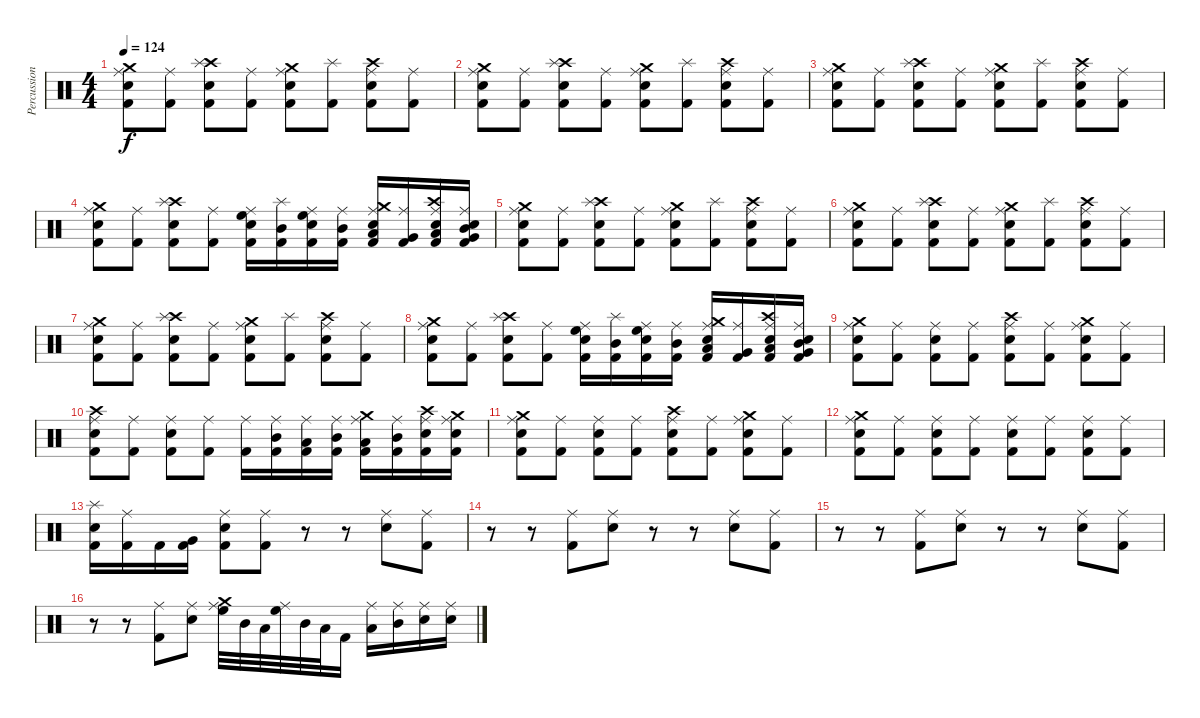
\track ("Percussions" "Percussion") {instrument percussion}
\staff {score}
\articulation defaults
\ts (4 4)
\tempo 124
\clef neutral
\ks c
("Kick (hit) 2" "Electric Snare (hit)" "Crash medium (hit)" "Ride (middle)").8{dy f} ("Kick (hit) 2" "Ride (middle)").8 ("Kick (hit) 2" "Electric Snare (hit)" "Crash high (hit)" "Splash (hit)").8 ("Kick (hit) 2" "Ride (middle)").8 ("Kick (hit) 2" "Electric Snare (hit)" "Crash medium (hit)" "Ride (middle)").8 ("Kick (hit) 2" "Splash (hit)").8 ("Kick (hit) 2" "Electric Snare (hit)" "Crash high (hit)" "Ride (middle)").8 ("Kick (hit) 2" "Ride (middle)").8 |
("Kick (hit) 2" "Electric Snare (hit)" "Crash medium (hit)" "Ride (middle)").8 ("Kick (hit) 2" "Ride (middle)").8 ("Kick (hit) 2" "Electric Snare (hit)" "Crash high (hit)" "Splash (hit)").8 ("Kick (hit) 2" "Ride (middle)").8 ("Kick (hit) 2" "Electric Snare (hit)" "Crash medium (hit)" "Ride (middle)").8 ("Kick (hit) 2" "Splash (hit)").8 ("Kick (hit) 2" "Electric Snare (hit)" "Crash high (hit)" "Ride (middle)").8 ("Kick (hit) 2" "Ride (middle)").8 |
("Kick (hit) 2" "Electric Snare (hit)" "Crash medium (hit)" "Ride (middle)").8 ("Kick (hit) 2" "Ride (middle)").8 ("Kick (hit) 2" "Electric Snare (hit)" "Crash high (hit)" "Splash (hit)").8 ("Kick (hit) 2" "Ride (middle)").8 ("Kick (hit) 2" "Electric Snare (hit)" "Crash medium (hit)" "Ride (middle)").8 ("Kick (hit) 2" "Splash (hit)").8 ("Kick (hit) 2" "Electric Snare (hit)" "Crash high (hit)" "Ride (middle)").8 ("Kick (hit) 2" "Ride (middle)").8 |
("Kick (hit) 2" "Electric Snare (hit)" "Crash medium (hit)" "Ride (middle)").8 ("Kick (hit) 2" "Ride (middle)").8 ("Kick (hit) 2" "Electric Snare (hit)" "Crash high (hit)" "Splash (hit)").8 ("Kick (hit) 2" "Ride (middle)").8 ("Kick (hit) 2" "Electric Snare (hit)" "High Floor Tom (hit)" "Ride (middle)").16 ("Kick (hit) 2" "Mid Tom (hit)" "Splash (hit)").16 ("Kick (hit) 2" "Electric Snare (hit)" "High Floor Tom (hit)" "Ride (middle)").16 ("Kick (hit) 2" "Mid Tom (hit)" "Ride (middle)").16 ("Kick (hit) 2" "Electric Snare (hit)" "Low Tom (hit)" "Crash medium (hit)" "Ride (middle)").16 ("Kick (hit) 2" "Very Low Tom (hit)" "Ride (middle)").16 ("Kick (hit) 2" "Electric Snare (hit)" "Low Tom (hit)" "Crash high (hit)" "Ride (middle)").16 ("Kick (hit) 2" "Electric Snare (hit)" "Very Low Tom (hit)" "Mid Tom (hit)" "Ride (middle)").16 |
("Kick (hit) 2" "Electric Snare (hit)" "Crash medium (hit)" "Ride (middle)").8 ("Kick (hit) 2" "Ride (middle)").8 ("Kick (hit) 2" "Electric Snare (hit)" "Crash high (hit)" "Splash (hit)").8 ("Kick (hit) 2" "Ride (middle)").8 ("Kick (hit) 2" "Electric Snare (hit)" "Crash medium (hit)" "Ride (middle)").8 ("Kick (hit) 2" "Splash (hit)").8 ("Kick (hit) 2" "Electric Snare (hit)" "Crash high (hit)" "Ride (middle)").8 ("Kick (hit) 2" "Ride (middle)").8 |
("Kick (hit) 2" "Electric Snare (hit)" "Crash medium (hit)" "Ride (middle)").8 ("Kick (hit) 2" "Ride (middle)").8 ("Kick (hit) 2" "Electric Snare (hit)" "Crash high (hit)" "Splash (hit)").8 ("Kick (hit) 2" "Ride (middle)").8 ("Kick (hit) 2" "Electric Snare (hit)" "Crash medium (hit)" "Ride (middle)").8 ("Kick (hit) 2" "Splash (hit)").8 ("Kick (hit) 2" "Electric Snare (hit)" "Crash high (hit)" "Ride (middle)").8 ("Kick (hit) 2" "Ride (middle)").8 |
("Kick (hit) 2" "Electric Snare (hit)" "Crash medium (hit)" "Ride (middle)").8 ("Kick (hit) 2" "Ride (middle)").8 ("Kick (hit) 2" "Electric Snare (hit)" "Crash high (hit)" "Splash (hit)").8 ("Kick (hit) 2" "Ride (middle)").8 ("Kick (hit) 2" "Electric Snare (hit)" "Crash medium (hit)" "Ride (middle)").8 ("Kick (hit) 2" "Splash (hit)").8 ("Kick (hit) 2" "Electric Snare (hit)" "Crash high (hit)" "Ride (middle)").8 ("Kick (hit) 2" "Ride (middle)").8 |
("Kick (hit) 2" "Electric Snare (hit)" "Crash medium (hit)" "Ride (middle)").8 ("Kick (hit) 2" "Ride (middle)").8 ("Kick (hit) 2" "Electric Snare (hit)" "Crash high (hit)" "Splash (hit)").8 ("Kick (hit) 2" "Ride (middle)").8 ("Kick (hit) 2" "Electric Snare (hit)" "High Floor Tom (hit)" "Ride (middle)").16 ("Kick (hit) 2" "Mid Tom (hit)" "Splash (hit)").16 ("Kick (hit) 2" "Electric Snare (hit)" "High Floor Tom (hit)" "Ride (middle)").16 ("Kick (hit) 2" "Mid Tom (hit)" "Ride (middle)").16 ("Kick (hit) 2" "Electric Snare (hit)" "Low Tom (hit)" "Crash medium (hit)" "Ride (middle)").16 ("Kick (hit) 2" "Very Low Tom (hit)" "Ride (middle)").16 ("Kick (hit) 2" "Electric Snare (hit)" "Low Tom (hit)" "Crash high (hit)" "Ride (middle)").16 ("Kick (hit) 2" "Electric Snare (hit)" "Very Low Tom (hit)" "Mid Tom (hit)" "Ride (middle)").16 |
("Kick (hit) 2" "Electric Snare (hit)" "Crash medium (hit)" "Ride (middle)").8 ("Kick (hit) 2" "Ride (middle)").8 ("Kick (hit) 2" "Electric Snare (hit)" "Ride (middle)").8 ("Kick (hit) 2" "Ride (middle)").8 ("Kick (hit) 2" "Electric Snare (hit)" "Crash high (hit)" "Ride (middle)").8 ("Kick (hit) 2" "Ride (middle)").8 ("Kick (hit) 2" "Electric Snare (hit)" "Crash medium (hit)" "Ride (middle)").8 ("Kick (hit) 2" "Ride (middle)").8 |
("Kick (hit) 2" "Electric Snare (hit)" "Crash high (hit)" "Ride (middle)").8 ("Kick (hit) 2" "Ride (middle)").8 ("Kick (hit) 2" "Electric Snare (hit)" "Ride (middle)").8 ("Kick (hit) 2" "Ride (middle)").8 ("Kick (hit) 2" "Ride (middle)").16 ("Kick (hit) 2" "Mid Tom (hit)" "Ride (middle)").16 ("Low Tom (hit)" "Kick (hit) 2" "Ride (middle)").16 ("Kick (hit) 2" "Mid Tom (hit)" "Ride (middle)").16 ("Kick (hit) 2" "Low Tom (hit)" "Crash medium (hit)" "Ride (middle)").16 ("Kick (hit) 2" "Mid Tom (hit)" "Ride (middle)").16 ("Kick (hit) 2" "Electric Snare (hit)" "Crash high (hit)" "Ride (middle)").16 ("Kick (hit) 2" "Electric Snare (hit)" "Crash medium (hit)" "Ride (middle)").16 |
("Kick (hit) 2" "Electric Snare (hit)" "Crash medium (hit)" "Ride (middle)").8 ("Kick (hit) 2" "Ride (middle)").8 ("Kick (hit) 2" "Electric Snare (hit)" "Ride (middle)").8 ("Kick (hit) 2" "Ride (middle)").8 ("Kick (hit) 2" "Electric Snare (hit)" "Crash high (hit)" "Ride (middle)").8 ("Kick (hit) 2" "Ride (middle)").8 ("Kick (hit) 2" "Electric Snare (hit)" "Crash medium (hit)" "Ride (middle)").8 ("Kick (hit) 2" "Ride (middle)").8 |
("Kick (hit) 2" "Electric Snare (hit)" "Crash medium (hit)" "Ride (middle)").8 ("Kick (hit) 2" "Ride (middle)").8 ("Kick (hit) 2" "Electric Snare (hit)" "Ride (middle)").8 ("Kick (hit) 2" "Ride (middle)").8 ("Kick (hit) 2" "Electric Snare (hit)" "Ride (middle)").8 ("Kick (hit) 2" "Ride (middle)").8 ("Kick (hit) 2" "Electric Snare (hit)" "Ride (middle)").8 ("Kick (hit) 2" "Ride (middle)").8 |
("Kick (hit) 2" "Electric Snare (hit)" "Splash (hit)").16 ("Kick (hit) 2" "Ride (middle)").16 "Kick (hit) 2".16 ("Kick (hit) 2" "Very Low Tom (hit)").16 ("Kick (hit) 2" "Electric Snare (hit)" "Ride (middle)").8 ("Kick (hit) 2" "Ride (middle)").8 r.8 r.8 ("Electric Snare (hit)" "Ride (middle)").8 ("Kick (hit) 2" "Ride (middle)").8 |
r.8 r.8 ("Kick (hit) 2" "Ride (middle)").8 ("Electric Snare (hit)" "Ride (middle)").8 r.8 r.8 ("Electric Snare (hit)" "Ride (middle)").8 ("Kick (hit) 2" "Ride (middle)").8 |
r.8 r.8 ("Kick (hit) 2" "Ride (middle)").8 ("Electric Snare (hit)" "Ride (middle)").8 r.8 r.8 ("Electric Snare (hit)" "Ride (middle)").8 ("Kick (hit) 2" "Ride (middle)").8 |
r.8 r.8 ("Kick (hit) 2" "Ride (middle)").8 ("Electric Snare (hit)" "Ride (middle)").8 ("High Floor Tom (hit)" "Crash medium (hit)" "Ride (middle)").32 "Mid Tom (hit)".32 "Low Tom (hit)".32 ("High Floor Tom (hit)" "Ride (middle)").32 "Mid Tom (hit)".32 "Low Tom (hit)".32 "Kick (hit) 2".16 ("Low Tom (hit)" "Ride (middle)").16 ("Mid Tom (hit)" "Ride (middle)").16 ("Electric Snare (hit)" "Ride (middle)").16 ("Electric Snare (hit)" "Ride (middle)").16
